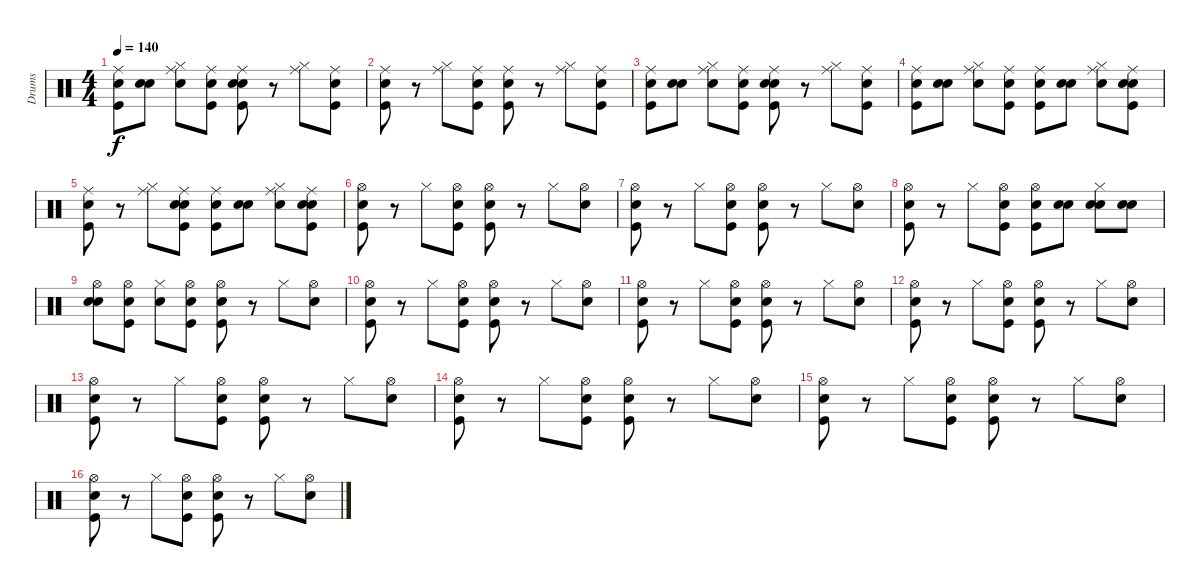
\track ("Drums" "Drums") {instrument percussion}
\staff {score}
\articulation defaults
\ts (4 4)
\tempo 140
\clef neutral
\ks c
("Snare (hit)" "Kick (hit)" "Ride (middle)").8{dy f} ("Snare (hit)" "Snare (hit) 2").8 ("Snare (hit)" "Hi-Hat (closed)" "Ride (middle)").8 ("Snare (hit)" "Kick (hit)" "Ride (middle)").8 ("Snare (hit)" "Kick (hit)" "Snare (hit) 2" "Ride (middle)").8 r.8 ("Hi-Hat (closed)" "Ride (middle)").8 ("Snare (hit)" "Kick (hit)" "Ride (middle)").8 |
("Snare (hit)" "Kick (hit)" "Ride (middle)").8 r.8 ("Hi-Hat (closed)" "Ride (middle)").8 ("Snare (hit)" "Kick (hit)" "Ride (middle)").8 ("Snare (hit)" "Kick (hit)" "Ride (middle)").8 r.8 ("Hi-Hat (closed)" "Ride (middle)").8 ("Snare (hit)" "Kick (hit)" "Ride (middle)").8 |
("Snare (hit)" "Kick (hit)" "Ride (middle)").8 ("Snare (hit)" "Snare (hit) 2").8 ("Snare (hit)" "Hi-Hat (closed)" "Ride (middle)").8 ("Snare (hit)" "Kick (hit)" "Ride (middle)").8 ("Snare (hit)" "Kick (hit)" "Snare (hit) 2" "Ride (middle)").8 r.8 ("Hi-Hat (closed)" "Ride (middle)").8 ("Snare (hit)" "Kick (hit)" "Ride (middle)").8 |
("Snare (hit)" "Kick (hit)" "Ride (middle)").8 ("Snare (hit)" "Snare (hit) 2").8 ("Snare (hit)" "Hi-Hat (closed)" "Ride (middle)").8 ("Snare (hit)" "Kick (hit)" "Ride (middle)").8 ("Snare (hit)" "Kick (hit)" "Ride (middle)").8 ("Snare (hit)" "Snare (hit) 2").8 ("Snare (hit)" "Hi-Hat (closed)" "Ride (middle)").8 ("Snare (hit)" "Kick (hit)" "Snare (hit) 2" "Ride (middle)").8 |
("Snare (hit)" "Kick (hit)" "Ride (middle)").8 r.8 ("Hi-Hat (closed)" "Ride (middle)").8 ("Snare (hit)" "Kick (hit)" "Snare (hit) 2" "Ride (middle)").8 ("Snare (hit)" "Kick (hit)" "Ride (middle)").8 ("Snare (hit)" "Snare (hit) 2").8 ("Snare (hit)" "Hi-Hat (closed)" "Ride (middle)").8 ("Snare (hit)" "Kick (hit)" "Snare (hit) 2" "Ride (middle)").8 |
("Snare (hit)" "Kick (hit)" "Hi-Hat (open)").8 r.8 "Hi-Hat (closed)".8 ("Snare (hit)" "Kick (hit)" "Hi-Hat (open)").8 ("Snare (hit)" "Kick (hit)" "Hi-Hat (open)").8 r.8 "Hi-Hat (closed)".8 ("Snare (hit)" "Hi-Hat (open)").8 |
("Snare (hit)" "Kick (hit)" "Hi-Hat (open)").8 r.8 "Hi-Hat (closed)".8 ("Snare (hit)" "Kick (hit)" "Hi-Hat (open)").8 ("Snare (hit)" "Kick (hit)" "Hi-Hat (open)").8 r.8 "Hi-Hat (closed)".8 ("Snare (hit)" "Hi-Hat (open)").8 |
("Snare (hit)" "Kick (hit)" "Hi-Hat (open)").8 r.8 "Hi-Hat (closed)".8 ("Snare (hit)" "Kick (hit)" "Hi-Hat (open)").8 ("Snare (hit)" "Kick (hit)" "Hi-Hat (open)").8 ("Snare (hit)" "Snare (hit) 2").8 ("Snare (hit)" "Snare (hit) 2" "Hi-Hat (closed)").8 ("Snare (hit)" "Snare (hit) 2").8 |
("Snare (hit)" "Snare (hit) 2" "Hi-Hat (open)").8 ("Snare (hit)" "Kick (hit)" "Hi-Hat (open)").8 ("Snare (hit)" "Hi-Hat (closed)").8 ("Snare (hit)" "Kick (hit)" "Hi-Hat (open)").8 ("Snare (hit)" "Kick (hit)" "Hi-Hat (open)").8 r.8 "Hi-Hat (closed)".8 ("Snare (hit)" "Hi-Hat (open)").8 |
("Snare (hit)" "Kick (hit)" "Hi-Hat (open)").8 r.8 "Hi-Hat (closed)".8 ("Snare (hit)" "Kick (hit)" "Hi-Hat (open)").8 ("Snare (hit)" "Kick (hit)" "Hi-Hat (open)").8 r.8 "Hi-Hat (closed)".8 ("Snare (hit)" "Hi-Hat (open)").8 |
("Snare (hit)" "Kick (hit)" "Hi-Hat (open)").8 r.8 "Hi-Hat (closed)".8 ("Snare (hit)" "Kick (hit)" "Hi-Hat (open)").8 ("Snare (hit)" "Kick (hit)" "Hi-Hat (open)").8 r.8 "Hi-Hat (closed)".8 ("Snare (hit)" "Hi-Hat (open)").8 |
("Snare (hit)" "Kick (hit)" "Hi-Hat (open)").8 r.8 "Hi-Hat (closed)".8 ("Snare (hit)" "Kick (hit)" "Hi-Hat (open)").8 ("Snare (hit)" "Kick (hit)" "Hi-Hat (open)").8 r.8 "Hi-Hat (closed)".8 ("Snare (hit)" "Hi-Hat (open)").8 |
("Snare (hit)" "Kick (hit)" "Hi-Hat (open)").8 r.8 "Hi-Hat (closed)".8 ("Snare (hit)" "Kick (hit)" "Hi-Hat (open)").8 ("Snare (hit)" "Kick (hit)" "Hi-Hat (open)").8 r.8 "Hi-Hat (closed)".8 ("Snare (hit)" "Hi-Hat (open)").8 |
("Snare (hit)" "Kick (hit)" "Hi-Hat (open)").8 r.8 "Hi-Hat (closed)".8 ("Snare (hit)" "Kick (hit)" "Hi-Hat (open)").8 ("Snare (hit)" "Kick (hit)" "Hi-Hat (open)").8 r.8 "Hi-Hat (closed)".8 ("Snare (hit)" "Hi-Hat (open)").8 |
("Snare (hit)" "Kick (hit)" "Hi-Hat (open)").8 r.8 "Hi-Hat (closed)".8 ("Snare (hit)" "Kick (hit)" "Hi-Hat (open)").8 ("Snare (hit)" "Kick (hit)" "Hi-Hat (open)").8 r.8 "Hi-Hat (closed)".8 ("Snare (hit)" "Hi-Hat (open)").8 |
("Snare (hit)" "Kick (hit)" "Hi-Hat (open)").8 r.8 "Hi-Hat (closed)".8 ("Snare (hit)" "Kick (hit)" "Hi-Hat (open)").8 ("Snare (hit)" "Kick (hit)" "Hi-Hat (open)").8 r.8 "Hi-Hat (closed)".8 ("Snare (hit)" "Hi-Hat (open)").8
